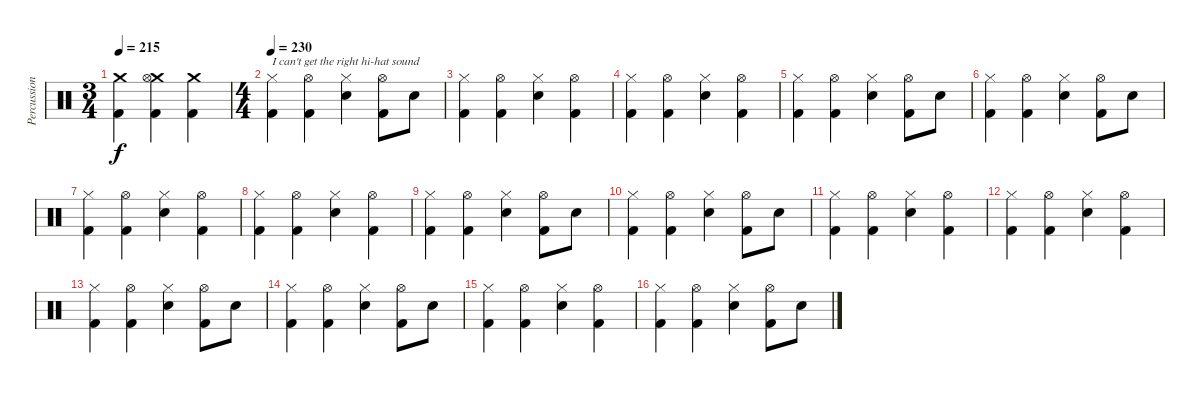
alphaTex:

\track ("Percussion" "Percussion") {instrument percussion}
\staff {score}
\articulation defaults
\ts (3 4)
\tempo 215
\clef neutral
\ks c
("Crash medium (hit)" "Kick (hit) 2").4{dy f} ("Crash medium (hit)" "Hi-Hat (open)" "Kick (hit) 2").4 ("Crash medium (hit)" "Kick (hit) 2").4 |
\ts (4 4)
\tempo 230
("Hi-Hat (closed)" "Kick (hit) 2").4{txt "I can't get the right hi-hat sound"} ("Hi-Hat (open)" "Kick (hit) 2").4 ("Hi-Hat (closed)" "Electric Snare (hit)").4 ("Hi-Hat (open)" "Kick (hit) 2").8 "Electric Snare (hit)".8 |
("Hi-Hat (closed)" "Kick (hit) 2").4 ("Hi-Hat (open)" "Kick (hit) 2").4 ("Hi-Hat (closed)" "Electric Snare (hit)").4 ("Hi-Hat (open)" "Kick (hit) 2").4 |
("Hi-Hat (closed)" "Kick (hit) 2").4 ("Hi-Hat (open)" "Kick (hit) 2").4 ("Hi-Hat (closed)" "Electric Snare (hit)").4 ("Hi-Hat (open)" "Kick (hit) 2").4 |
("Hi-Hat (closed)" "Kick (hit) 2").4 ("Hi-Hat (open)" "Kick (hit) 2").4 ("Hi-Hat (closed)" "Electric Snare (hit)").4 ("Hi-Hat (open)" "Kick (hit) 2").8 "Electric Snare (hit)".8 |
("Hi-Hat (closed)" "Kick (hit) 2").4 ("Hi-Hat (open)" "Kick (hit) 2").4 ("Hi-Hat (closed)" "Electric Snare (hit)").4 ("Hi-Hat (open)" "Kick (hit) 2").8 "Electric Snare (hit)".8 |
("Hi-Hat (closed)" "Kick (hit) 2").4 ("Hi-Hat (open)" "Kick (hit) 2").4 ("Hi-Hat (closed)" "Electric Snare (hit)").4 ("Hi-Hat (open)" "Kick (hit) 2").4 |
("Hi-Hat (closed)" "Kick (hit) 2").4 ("Hi-Hat (open)" "Kick (hit) 2").4 ("Hi-Hat (closed)" "Electric Snare (hit)").4 ("Hi-Hat (open)" "Kick (hit) 2").4 |
("Hi-Hat (closed)" "Kick (hit) 2").4 ("Hi-Hat (open)" "Kick (hit) 2").4 ("Hi-Hat (closed)" "Electric Snare (hit)").4 ("Hi-Hat (open)" "Kick (hit) 2").8 "Electric Snare (hit)".8 |
("Hi-Hat (closed)" "Kick (hit) 2").4 ("Hi-Hat (open)" "Kick (hit) 2").4 ("Hi-Hat (closed)" "Electric Snare (hit)").4 ("Hi-Hat (open)" "Kick (hit) 2").8 "Electric Snare (hit)".8 |
("Hi-Hat (closed)" "Kick (hit) 2").4 ("Hi-Hat (open)" "Kick (hit) 2").4 ("Hi-Hat (closed)" "Electric Snare (hit)").4 ("Hi-Hat (open)" "Kick (hit) 2").4 |
("Hi-Hat (closed)" "Kick (hit) 2").4 ("Hi-Hat (open)" "Kick (hit) 2").4 ("Hi-Hat (closed)" "Electric Snare (hit)").4 ("Hi-Hat (open)" "Kick (hit) 2").4 |
("Hi-Hat (closed)" "Kick (hit) 2").4 ("Hi-Hat (open)" "Kick (hit) 2").4 ("Hi-Hat (closed)" "Electric Snare (hit)").4 ("Hi-Hat (open)" "Kick (hit) 2").8 "Electric Snare (hit)".8 |
("Hi-Hat (closed)" "Kick (hit) 2").4 ("Hi-Hat (open)" "Kick (hit) 2").4 ("Hi-Hat (closed)" "Electric Snare (hit)").4 ("Hi-Hat (open)" "Kick (hit) 2").8 "Electric Snare (hit)".8 |
("Hi-Hat (closed)" "Kick (hit) 2").4 ("Hi-Hat (open)" "Kick (hit) 2").4 ("Hi-Hat (closed)" "Electric Snare (hit)").4 ("Hi-Hat (open)" "Kick (hit) 2").4 |
("Hi-Hat (closed)" "Kick (hit) 2").4 ("Hi-Hat (open)" "Kick (hit) 2").4 ("Hi-Hat (closed)" "Electric Snare (hit)").4 ("Hi-Hat (open)" "Kick (hit) 2").8 "Electric Snare (hit)".8
